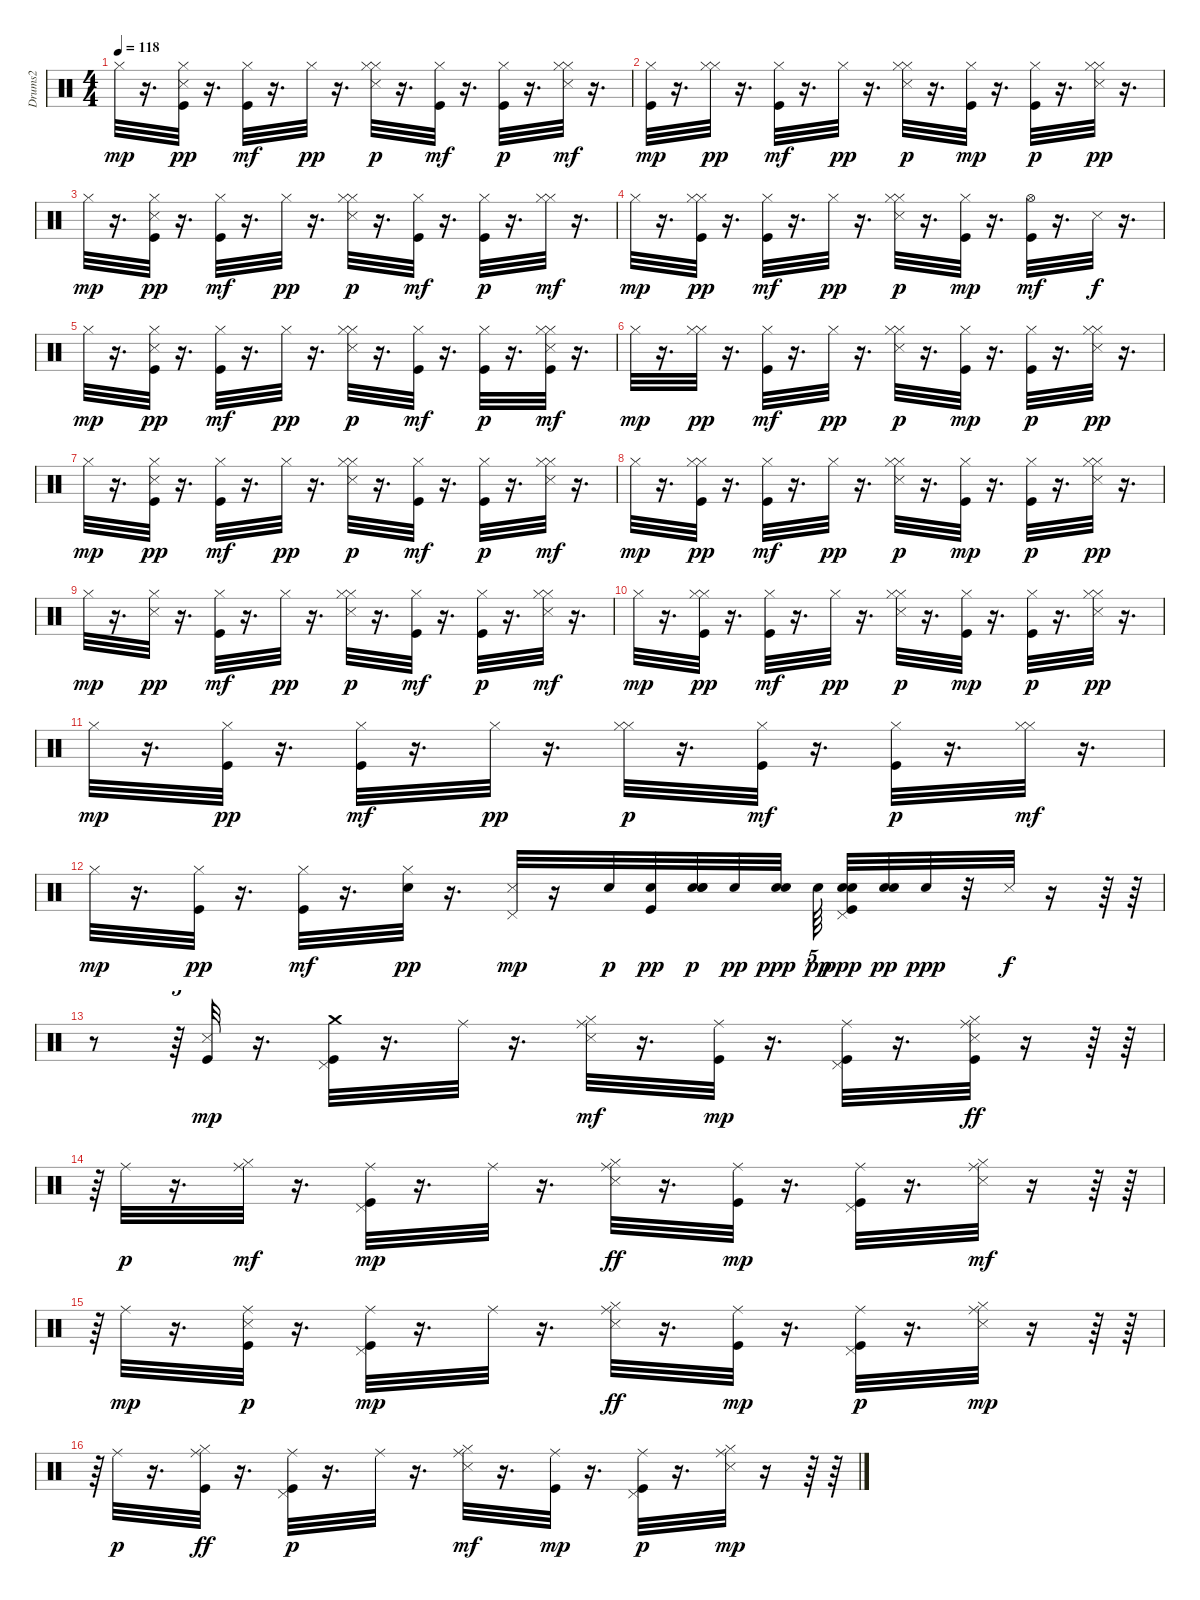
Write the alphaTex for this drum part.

\track ("Drums2" "Drums2") {instrument percussion}
\staff {score}
\articulation defaults
\ts (4 4)
\tempo 118
\clef neutral
\ks c "Hi-Hat (closed)".32{dy mp}
r.16{d} ("Kick (hit)" "Snare (side stick) 3" "Hi-Hat (closed)").32{dy pp} r.16{d} ("Kick (hit)" "Hi-Hat (closed)").32{dy mf} r.16{d} "Hi-Hat (closed)".32{dy pp} r.16{d} ("Hi-Hat (closed)" "Snare (side stick) 3" "Hi-Hat (closed)").32{dy p} r.16{d} ("Kick (hit)" "Hi-Hat (closed)").32{dy mf} r.16{d} ("Kick (hit)" "Hi-Hat (closed)").32{dy p} r.16{d} ("Hi-Hat (closed)" "Snare (side stick) 3" "Hi-Hat (closed)").32{dy mf} r.16{d} |
("Kick (hit)" "Hi-Hat (closed)").32{dy mp} r.16{d} ("Hi-Hat (closed)" "Hi-Hat (closed)").32{dy pp} r.16{d} ("Kick (hit)" "Hi-Hat (closed)").32{dy mf} r.16{d} "Hi-Hat (closed)".32{dy pp} r.16{d} ("Hi-Hat (closed)" "Snare (side stick) 3" "Hi-Hat (closed)").32{dy p} r.16{d} ("Kick (hit)" "Hi-Hat (closed)").32{dy mp} r.16{d} ("Kick (hit)" "Hi-Hat (closed)").32{dy p} r.16{d} ("Hi-Hat (closed)" "Snare (side stick) 3" "Hi-Hat (closed)").32{dy pp} r.16{d} |
"Hi-Hat (closed)".32{dy mp} r.16{d} ("Kick (hit)" "Snare (side stick) 3" "Hi-Hat (closed)").32{dy pp} r.16{d} ("Kick (hit)" "Hi-Hat (closed)").32{dy mf} r.16{d} "Hi-Hat (closed)".32{dy pp} r.16{d} ("Hi-Hat (closed)" "Snare (side stick) 3" "Hi-Hat (closed)").32{dy p} r.16{d} ("Kick (hit)" "Hi-Hat (closed)").32{dy mf} r.16{d} ("Kick (hit)" "Hi-Hat (closed)").32{dy p} r.16{d} ("Hi-Hat (closed)" "Hi-Hat (closed)").32{dy mf} r.16{d} |
"Hi-Hat (closed)".32{dy mp} r.16{d} ("Hi-Hat (closed)" "Kick (hit)" "Hi-Hat (closed)").32{dy pp} r.16{d} ("Kick (hit)" "Hi-Hat (closed)").32{dy mf} r.16{d} "Hi-Hat (closed)".32{dy pp} r.16{d} ("Hi-Hat (closed)" "Snare (side stick) 3" "Hi-Hat (closed)").32{dy p} r.16{d} ("Kick (hit)" "Hi-Hat (closed)").32{dy mp} r.16{d} ("Kick (hit)" "Hi-Hat (open)").32{dy mf} r.16{d} "Snare (side stick) 3".32{dy f} r.16{d} |
"Hi-Hat (closed)".32{dy mp} r.16{d} ("Kick (hit)" "Snare (side stick) 3" "Hi-Hat (closed)").32{dy pp} r.16{d} ("Kick (hit)" "Hi-Hat (closed)").32{dy mf} r.16{d} "Hi-Hat (closed)".32{dy pp} r.16{d} ("Hi-Hat (closed)" "Snare (side stick) 3" "Hi-Hat (closed)").32{dy p} r.16{d} ("Kick (hit)" "Hi-Hat (closed)").32{dy mf} r.16{d} ("Kick (hit)" "Hi-Hat (closed)").32{dy p} r.16{d} ("Hi-Hat (closed)" "Kick (hit)" "Snare (side stick) 3" "Hi-Hat (closed)").32{dy mf} r.16{d} |
"Hi-Hat (closed)".32{dy mp} r.16{d} ("Hi-Hat (closed)" "Hi-Hat (closed)").32{dy pp} r.16{d} ("Kick (hit)" "Hi-Hat (closed)").32{dy mf} r.16{d} "Hi-Hat (closed)".32{dy pp} r.16{d} ("Hi-Hat (closed)" "Snare (side stick) 3" "Hi-Hat (closed)").32{dy p} r.16{d} ("Kick (hit)" "Hi-Hat (closed)").32{dy mp} r.16{d} ("Kick (hit)" "Hi-Hat (closed)").32{dy p} r.16{d} ("Hi-Hat (closed)" "Snare (side stick) 3" "Hi-Hat (closed)").32{dy pp} r.16{d} |
"Hi-Hat (closed)".32{dy mp} r.16{d} ("Kick (hit)" "Snare (side stick) 3" "Hi-Hat (closed)").32{dy pp} r.16{d} ("Kick (hit)" "Hi-Hat (closed)").32{dy mf} r.16{d} "Hi-Hat (closed)".32{dy pp} r.16{d} ("Hi-Hat (closed)" "Snare (side stick) 3" "Hi-Hat (closed)").32{dy p} r.16{d} ("Kick (hit)" "Hi-Hat (closed)").32{dy mf} r.16{d} ("Kick (hit)" "Hi-Hat (closed)").32{dy p} r.16{d} ("Hi-Hat (closed)" "Snare (side stick) 3" "Hi-Hat (closed)").32{dy mf} r.16{d} |
"Hi-Hat (closed)".32{dy mp} r.16{d} ("Hi-Hat (closed)" "Kick (hit)" "Hi-Hat (closed)").32{dy pp} r.16{d} ("Kick (hit)" "Hi-Hat (closed)").32{dy mf} r.16{d} "Hi-Hat (closed)".32{dy pp} r.16{d} ("Hi-Hat (closed)" "Snare (side stick) 3" "Hi-Hat (closed)").32{dy p} r.16{d} ("Kick (hit)" "Hi-Hat (closed)").32{dy mp} r.16{d} ("Kick (hit)" "Hi-Hat (closed)").32{dy p} r.16{d} ("Hi-Hat (closed)" "Snare (side stick) 3" "Hi-Hat (closed)").32{dy pp} r.16{d} |
"Hi-Hat (closed)".32{dy mp} r.16{d} ("Snare (side stick) 3" "Hi-Hat (closed)").32{dy pp} r.16{d} ("Kick (hit)" "Hi-Hat (closed)").32{dy mf} r.16{d} "Hi-Hat (closed)".32{dy pp} r.16{d} ("Hi-Hat (closed)" "Snare (side stick) 3" "Hi-Hat (closed)").32{dy p} r.16{d} ("Kick (hit)" "Hi-Hat (closed)").32{dy mf} r.16{d} ("Kick (hit)" "Hi-Hat (closed)").32{dy p} r.16{d} ("Hi-Hat (closed)" "Snare (side stick) 3" "Hi-Hat (closed)").32{dy mf} r.16{d} |
"Hi-Hat (closed)".32{dy mp} r.16{d} ("Hi-Hat (closed)" "Kick (hit)" "Hi-Hat (closed)").32{dy pp} r.16{d} ("Kick (hit)" "Hi-Hat (closed)").32{dy mf} r.16{d} "Hi-Hat (closed)".32{dy pp} r.16{d} ("Hi-Hat (closed)" "Snare (side stick) 3" "Hi-Hat (closed)").32{dy p} r.16{d} ("Kick (hit)" "Hi-Hat (closed)").32{dy mp} r.16{d} ("Kick (hit)" "Hi-Hat (closed)").32{dy p} r.16{d} ("Hi-Hat (closed)" "Snare (side stick) 3" "Hi-Hat (closed)").32{dy pp} r.16{d} |
"Hi-Hat (closed)".32{dy mp} r.16{d} ("Kick (hit)" "Hi-Hat (closed)").32{dy pp} r.16{d} ("Kick (hit)" "Hi-Hat (closed)").32{dy mf} r.16{d} "Hi-Hat (closed)".32{dy pp} r.16{d} ("Hi-Hat (closed)" "Hi-Hat (closed)").32{dy p} r.16{d} ("Kick (hit)" "Hi-Hat (closed)").32{dy mf} r.16{d} ("Kick (hit)" "Hi-Hat (closed)").32{dy p} r.16{d} ("Hi-Hat (closed)" "Hi-Hat (closed)").32{dy mf} r.16{d} |
"Hi-Hat (closed)".32{dy mp} r.16{d} ("Kick (hit)" "Hi-Hat (closed)").32{dy pp} r.16{d} ("Kick (hit)" "Hi-Hat (closed)").32{dy mf} r.16{d} ("Electric Snare (hit)" "Hi-Hat (closed)").32{dy pp} r.16{d} ("Snare (side stick) 3" "Pedal Hi-Hat (hit)").32{dy mp} r.16 "Electric Snare (hit)".32{dy p} ("Kick (hit)" "Electric Snare (hit)").32{dy pp} ("Electric Snare (hit)" "Electric Snare (hit)" "Electric Snare (hit)").32{dy p} "Electric Snare (hit)".32{dy pp} ("Electric Snare (hit)" "Electric Snare (hit)").32{dy ppp} "Electric Snare (hit)".64{tu (5 4) dy pp} ("Kick (hit)" "Pedal Hi-Hat (hit)" "Electric Snare (hit)" "Electric Snare (hit)").32{dy ppp} ("Electric Snare (hit)" "Electric Snare (hit)").32{dy pp} "Electric Snare (hit)".32{dy ppp} r.32 "Snare (side stick) 3".32{dy f} r.16 r.64 r.64 |
r.8 r.64{tu (5 4)} ("Kick (hit)" "Snare (side stick) 3").32{dy mp} r.16{d} ("Kick (hit)" "Pedal Hi-Hat (hit)" "Crash medium (hit)").32 r.16{d} "Ride (middle)".32 r.16{d} ("Hi-Hat (closed)" "Snare (side stick) 3" "Ride (middle)").32{dy mf} r.16{d} ("Ride (middle)" "Kick (hit)").32{dy mp} r.16{d} ("Kick (hit)" "Pedal Hi-Hat (hit)" "Ride (middle)").32 r.16{d} ("Hi-Hat (closed)" "Kick (hit)" "Snare (side stick) 3" "Ride (middle)").32{dy ff} r.16 r.64 r.64 |
r.64{tu (5 4)} "Ride (middle)".32{dy p} r.16{d} ("Ride (middle)" "Hi-Hat (closed)").32{dy mf} r.16{d} ("Kick (hit)" "Pedal Hi-Hat (hit)" "Ride (middle)").32{dy mp} r.16{d} "Ride (middle)".32 r.16{d} ("Hi-Hat (closed)" "Snare (side stick) 3" "Ride (middle)").32{dy ff} r.16{d} ("Ride (middle)" "Kick (hit)").32{dy mp} r.16{d} ("Kick (hit)" "Pedal Hi-Hat (hit)" "Ride (middle)").32 r.16{d} ("Hi-Hat (closed)" "Snare (side stick) 3" "Ride (middle)").32{dy mf} r.16 r.64 r.64 |
r.64{tu (5 4)} "Ride (middle)".32{dy mp} r.16{d} ("Kick (hit)" "Snare (side stick) 3" "Ride (middle)").32{dy p} r.16{d} ("Kick (hit)" "Pedal Hi-Hat (hit)" "Ride (middle)").32{dy mp} r.16{d} "Ride (middle)".32 r.16{d} ("Hi-Hat (closed)" "Snare (side stick) 3" "Ride (middle)").32{dy ff} r.16{d} ("Ride (middle)" "Kick (hit)").32{dy mp} r.16{d} ("Kick (hit)" "Pedal Hi-Hat (hit)" "Ride (middle)").32{dy p} r.16{d} ("Hi-Hat (closed)" "Snare (side stick) 3" "Ride (middle)").32{dy mp} r.16 r.64 r.64 |
r.64{tu (5 4)} "Ride (middle)".32{dy p} r.16{d} ("Hi-Hat (closed)" "Kick (hit)" "Ride (middle)").32{dy ff} r.16{d} ("Kick (hit)" "Pedal Hi-Hat (hit)" "Ride (middle)").32{dy p} r.16{d} "Ride (middle)".32 r.16{d} ("Hi-Hat (closed)" "Snare (side stick) 3" "Ride (middle)").32{dy mf} r.16{d} ("Ride (middle)" "Kick (hit)").32{dy mp} r.16{d} ("Kick (hit)" "Pedal Hi-Hat (hit)" "Ride (middle)").32{dy p} r.16{d} ("Hi-Hat (closed)" "Snare (side stick) 3" "Ride (middle)").32{dy mp} r.16 r.64 r.64
